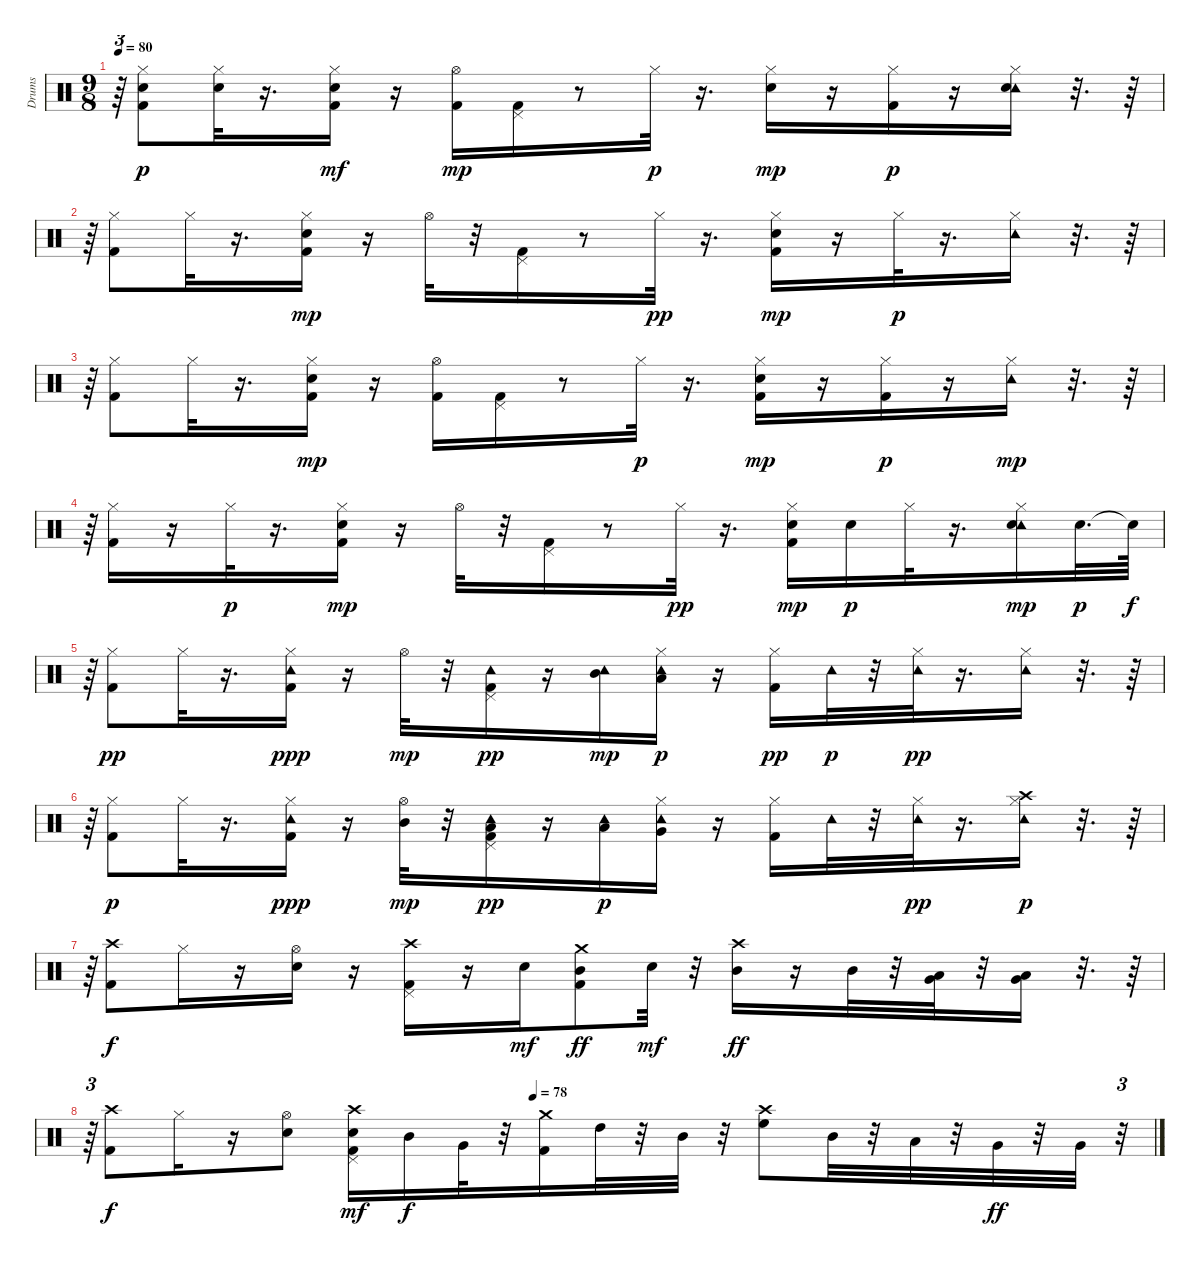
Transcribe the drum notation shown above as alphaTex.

\track ("Drums" "Drums") {instrument percussion}
\staff {score}
\articulation defaults
\ts (9 8)
\tempo 80
\clef neutral
\ks c
r.64{tu (3 2) dy p} ("Kick (hit) 2" "Electric Snare (hit)" "Hi-Hat (closed)").8 ("Hi-Hat (closed)" "Electric Snare (hit)").32 r.16{d} ("Kick (hit) 2" "Hi-Hat (closed)" "Electric Snare (hit)").16{dy mf} r.16 ("Kick (hit) 2" "Hi-Hat (open)").16{dy mp} ("Kick (hit) 2" "Pedal Hi-Hat (hit)").16 r.8 "Hi-Hat (closed)".32{dy p} r.16{d} ("Hi-Hat (closed)" "Electric Snare (hit)").16{dy mp} r.16 ("Kick (hit) 2" "Hi-Hat (closed)").16{dy p} r.16 ("Tambourine (hit)" "Hi-Hat (closed)" "Electric Snare (hit)").16 r.32{d} r.64 |
r.64{tu (3 2)} ("Kick (hit) 2" "Hi-Hat (closed)").8 "Hi-Hat (closed)".32 r.16{d} ("Kick (hit) 2" "Hi-Hat (closed)" "Electric Snare (hit)").16{dy mp} r.16 "Hi-Hat (open)".32 r.32 ("Kick (hit) 2" "Pedal Hi-Hat (hit)").16 r.8 "Hi-Hat (closed)".32{dy pp} r.16{d} ("Kick (hit) 2" "Hi-Hat (closed)" "Electric Snare (hit)").16{dy mp} r.16 "Hi-Hat (closed)".32{dy p} r.16{d} ("Tambourine (hit)" "Hi-Hat (closed)").16 r.32{d} r.64 |
r.64{tu (3 2)} ("Kick (hit) 2" "Hi-Hat (closed)").8 "Hi-Hat (closed)".32 r.16{d} ("Kick (hit) 2" "Hi-Hat (closed)" "Electric Snare (hit)").16{dy mp} r.16 ("Kick (hit) 2" "Hi-Hat (open)").16 ("Kick (hit) 2" "Pedal Hi-Hat (hit)").16 r.8 "Hi-Hat (closed)".32{dy p} r.16{d} ("Kick (hit) 2" "Hi-Hat (closed)" "Electric Snare (hit)").16{dy mp} r.16 ("Kick (hit) 2" "Hi-Hat (closed)").16{dy p} r.16 ("Tambourine (hit)" "Hi-Hat (closed)").16{dy mp} r.32{d} r.64 |
r.64{tu (3 2)} ("Kick (hit) 2" "Hi-Hat (closed)").16 r.16 "Hi-Hat (closed)".32{dy p} r.16{d} ("Kick (hit) 2" "Hi-Hat (closed)" "Electric Snare (hit)").16{dy mp} r.16 "Hi-Hat (open)".32 r.32 ("Kick (hit) 2" "Pedal Hi-Hat (hit)").16 r.8 "Hi-Hat (closed)".32{dy pp} r.16{d} ("Kick (hit) 2" "Hi-Hat (closed)" "Electric Snare (hit)").16{dy mp} "Electric Snare (hit)".16{dy p} "Hi-Hat (closed)".32 r.16{d} ("Tambourine (hit)" "Hi-Hat (closed)" "Electric Snare (hit)").16{dy mp} "Electric Snare (hit)".32{d dy p} "Snare (hit)"{t}.64{dy f} |
r.64{tu (3 2)} ("Kick (hit) 2" "Hi-Hat (closed)").8{dy pp} "Hi-Hat (closed)".32 r.16{d} ("Kick (hit) 2" "Hi-Hat (closed)" "Tambourine (hit)").16{dy ppp} r.16 "Hi-Hat (open)".32{dy mp} r.32 ("Kick (hit) 2" "Pedal Hi-Hat (hit)" "Tambourine (hit)").16{dy pp} r.16 ("Tambourine (hit)" "Mid Tom (hit)").16{dy mp} ("Hi-Hat (closed)" "Tambourine (hit)" "Low Tom (hit)").16{dy p} r.16 ("Kick (hit) 2" "Hi-Hat (closed)").16{dy pp} "Tambourine (hit)".32{dy p} r.32 ("Hi-Hat (closed)" "Tambourine (hit)").32{dy pp} r.16{d} ("Tambourine (hit)" "Hi-Hat (closed)").16 r.32{d} r.64 |
r.64{tu (3 2)} ("Kick (hit) 2" "Hi-Hat (closed)").8{dy p} "Hi-Hat (closed)".32 r.16{d} ("Kick (hit) 2" "Hi-Hat (closed)" "Tambourine (hit)").16{dy ppp} r.16 ("Hi-Hat (open)" "Mid Tom (hit)").32{dy mp} r.32 ("Kick (hit) 2" "Pedal Hi-Hat (hit)" "Low Tom (hit)" "Tambourine (hit)").16{dy pp} r.16 ("Tambourine (hit)" "Low Tom (hit)").16{dy p} ("Hi-Hat (closed)" "Tambourine (hit)" "Very Low Tom (hit)").16 r.16 ("Kick (hit) 2" "Hi-Hat (closed)").16 "Tambourine (hit)".32 r.32 ("Hi-Hat (closed)" "Tambourine (hit)").32{dy pp} r.16{d} ("Tambourine (hit)" "Hi-Hat (closed)" "Crash high (hit)").16{dy p} r.32{d} r.64 |
r.64{tu (3 2)} ("Crash high (hit)" "Kick (hit) 2").8{dy f} "Hi-Hat (closed)".16 r.16 ("Hi-Hat (open)" "Electric Snare (hit)").16 r.16 ("Crash high (hit)" "Kick (hit) 2" "Pedal Hi-Hat (hit)").16 r.16 "Electric Snare (hit)".16{dy mf} ("Crash medium (hit)" "Kick (hit) 2" "Mid Tom (hit)").8{dy ff} "Electric Snare (hit)".32{dy mf} r.32 ("Crash high (hit)" "Mid Tom (hit)").16{dy ff} r.16 "Mid Tom (hit)".32 r.32 ("Low Tom (hit)" "Very Low Tom (hit)").32 r.32 ("Very Low Tom (hit)" "Low Tom (hit)").16 r.32{d} r.64 |
\tempo (78 0.4166666666666667)
r.64{tu (3 2)} ("Crash high (hit)" "Kick (hit) 2").8{dy f} "Hi-Hat (closed)".16 r.16 ("Hi-Hat (open)" "Electric Snare (hit)").8 ("Crash high (hit)" "Kick (hit) 2" "Pedal Hi-Hat (hit)" "Electric Snare (hit)").16{dy mf} "Mid Tom (hit)".16{dy f} "Very Low Tom (hit)".32 r.32 ("Crash medium (hit)" "Kick (hit) 2").16 "High Tom (hit)".32 r.32 "Mid Tom (hit)".32 r.32 ("Crash high (hit)" "High Floor Tom (hit)").8 "Mid Tom (hit)".32 r.32 "Low Tom (hit)".32 r.32 "Very Low Tom (hit)".32{dy ff} r.32 "Very Low Tom (hit)".32 r.32{tu (3 2)}
